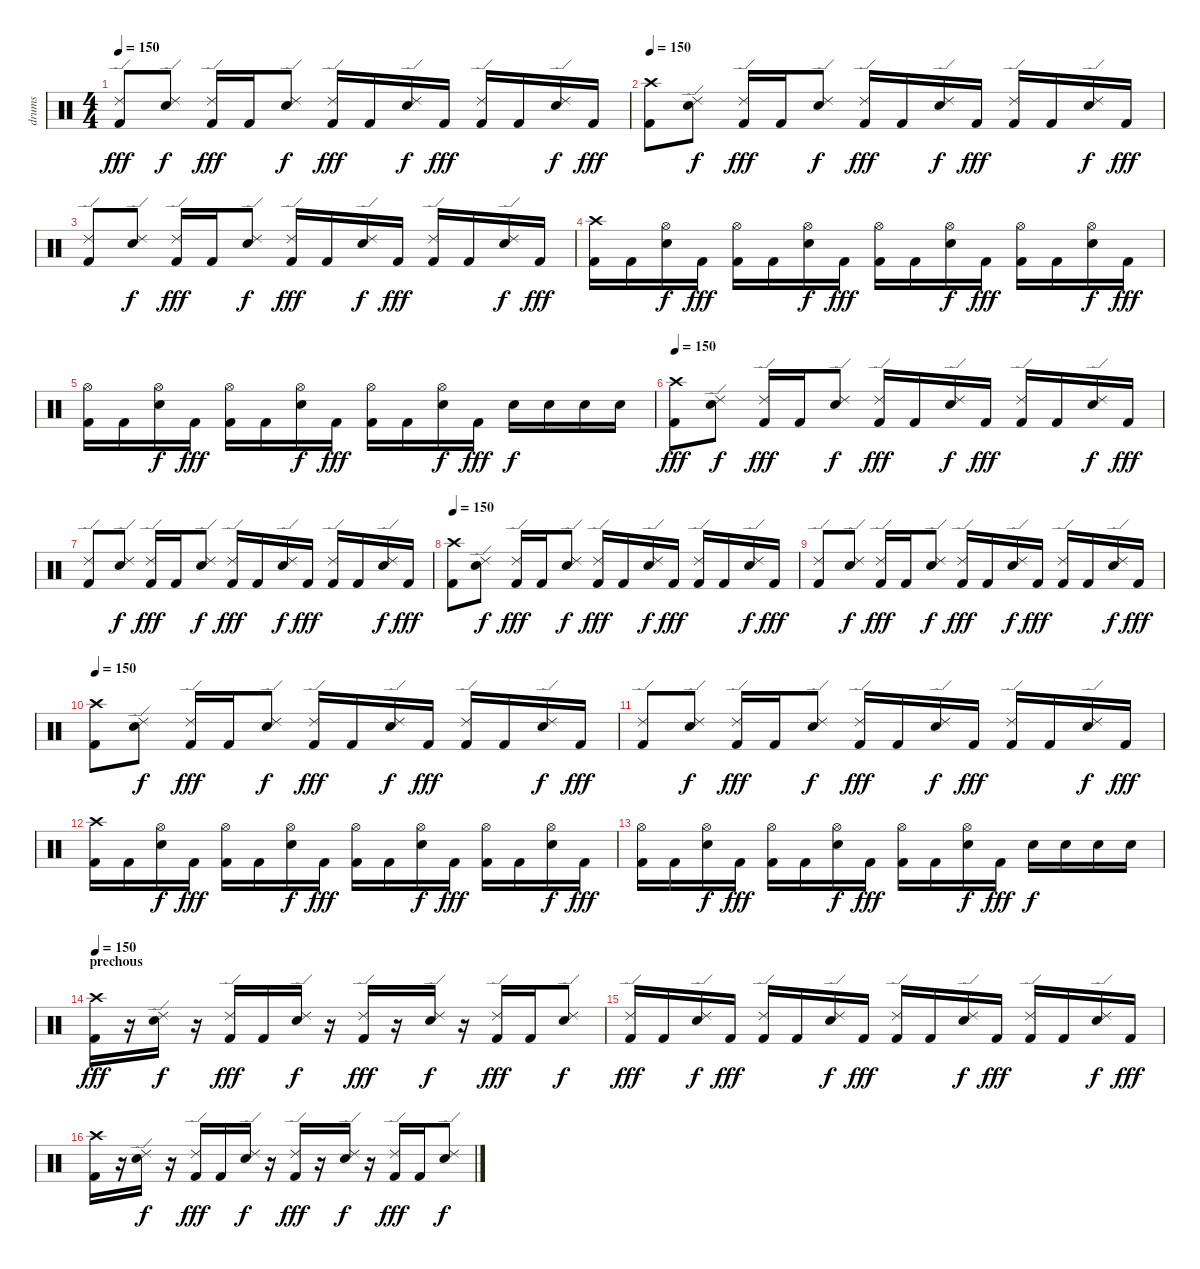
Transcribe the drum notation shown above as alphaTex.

\track ("drums" "drums") {instrument percussion}
\staff {score}
\articulation defaults
\ts (4 4)
\tempo 150
\clef neutral
\ks c
("Ride (edge) 2" "Kick (hit) 2").8{dy fff} ("Ride (edge) 2" "Snare (hit) 2").8{dy f} ("Ride (edge) 2" "Kick (hit) 2").16{dy fff} "Kick (hit) 2".16 ("Ride (edge) 2" "Snare (hit) 2").8{dy f} ("Ride (edge) 2" "Kick (hit) 2").16{dy fff} "Kick (hit) 2".16 ("Ride (edge) 2" "Snare (hit) 2").16{dy f} "Kick (hit) 2".16{dy fff} ("Ride (edge) 2" "Kick (hit) 2").16 "Kick (hit) 2".16 ("Ride (edge) 2" "Snare (hit) 2").16{dy f} "Kick (hit) 2".16{dy fff} |
\tempo 150
("Crash high (hit)" "Kick (hit) 2").8 ("Ride (edge) 2" "Snare (hit) 2").8{dy f} ("Ride (edge) 2" "Kick (hit) 2").16{dy fff} "Kick (hit) 2".16 ("Ride (edge) 2" "Snare (hit) 2").8{dy f} ("Ride (edge) 2" "Kick (hit) 2").16{dy fff} "Kick (hit) 2".16 ("Ride (edge) 2" "Snare (hit) 2").16{dy f} "Kick (hit) 2".16{dy fff} ("Ride (edge) 2" "Kick (hit) 2").16 "Kick (hit) 2".16 ("Ride (edge) 2" "Snare (hit) 2").16{dy f} "Kick (hit) 2".16{dy fff} |
("Ride (edge) 2" "Kick (hit) 2").8 ("Ride (edge) 2" "Snare (hit) 2").8{dy f} ("Ride (edge) 2" "Kick (hit) 2").16{dy fff} "Kick (hit) 2".16 ("Ride (edge) 2" "Snare (hit) 2").8{dy f} ("Ride (edge) 2" "Kick (hit) 2").16{dy fff} "Kick (hit) 2".16 ("Ride (edge) 2" "Snare (hit) 2").16{dy f} "Kick (hit) 2".16{dy fff} ("Ride (edge) 2" "Kick (hit) 2").16 "Kick (hit) 2".16 ("Ride (edge) 2" "Snare (hit) 2").16{dy f} "Kick (hit) 2".16{dy fff} |
("Crash high (hit)" "Kick (hit) 2").16 "Kick (hit) 2".16 ("Hi-Hat (open)" "Snare (hit) 2").16{dy f} "Kick (hit) 2".16{dy fff} ("Hi-Hat (open)" "Kick (hit) 2").16 "Kick (hit) 2".16 ("Hi-Hat (open)" "Snare (hit) 2").16{dy f} "Kick (hit) 2".16{dy fff} ("Hi-Hat (open)" "Kick (hit) 2").16 "Kick (hit) 2".16 ("Hi-Hat (open)" "Snare (hit) 2").16{dy f} "Kick (hit) 2".16{dy fff} ("Hi-Hat (open)" "Kick (hit) 2").16 "Kick (hit) 2".16 ("Hi-Hat (open)" "Snare (hit) 2").16{dy f} "Kick (hit) 2".16{dy fff} |
("Hi-Hat (open)" "Kick (hit) 2").16 "Kick (hit) 2".16 ("Hi-Hat (open)" "Snare (hit) 2").16{dy f} "Kick (hit) 2".16{dy fff} ("Hi-Hat (open)" "Kick (hit) 2").16 "Kick (hit) 2".16 ("Hi-Hat (open)" "Snare (hit) 2").16{dy f} "Kick (hit) 2".16{dy fff} ("Hi-Hat (open)" "Kick (hit) 2").16 "Kick (hit) 2".16 ("Hi-Hat (open)" "Snare (hit) 2").16{dy f} "Kick (hit) 2".16{dy fff} "Snare (hit) 2".16{dy f} "Snare (hit) 2".16 "Snare (hit) 2".16 "Snare (hit) 2".16 |
\tempo 150
("Crash high (hit)" "Kick (hit) 2").8{dy fff} ("Ride (edge) 2" "Snare (hit) 2").8{dy f} ("Ride (edge) 2" "Kick (hit) 2").16{dy fff} "Kick (hit) 2".16 ("Ride (edge) 2" "Snare (hit) 2").8{dy f} ("Ride (edge) 2" "Kick (hit) 2").16{dy fff} "Kick (hit) 2".16 ("Ride (edge) 2" "Snare (hit) 2").16{dy f} "Kick (hit) 2".16{dy fff} ("Ride (edge) 2" "Kick (hit) 2").16 "Kick (hit) 2".16 ("Ride (edge) 2" "Snare (hit) 2").16{dy f} "Kick (hit) 2".16{dy fff} |
("Ride (edge) 2" "Kick (hit) 2").8 ("Ride (edge) 2" "Snare (hit) 2").8{dy f} ("Ride (edge) 2" "Kick (hit) 2").16{dy fff} "Kick (hit) 2".16 ("Ride (edge) 2" "Snare (hit) 2").8{dy f} ("Ride (edge) 2" "Kick (hit) 2").16{dy fff} "Kick (hit) 2".16 ("Ride (edge) 2" "Snare (hit) 2").16{dy f} "Kick (hit) 2".16{dy fff} ("Ride (edge) 2" "Kick (hit) 2").16 "Kick (hit) 2".16 ("Ride (edge) 2" "Snare (hit) 2").16{dy f} "Kick (hit) 2".16{dy fff} |
\tempo 150
("Crash high (hit)" "Kick (hit) 2").8 ("Ride (edge) 2" "Snare (hit) 2").8{dy f} ("Ride (edge) 2" "Kick (hit) 2").16{dy fff} "Kick (hit) 2".16 ("Ride (edge) 2" "Snare (hit) 2").8{dy f} ("Ride (edge) 2" "Kick (hit) 2").16{dy fff} "Kick (hit) 2".16 ("Ride (edge) 2" "Snare (hit) 2").16{dy f} "Kick (hit) 2".16{dy fff} ("Ride (edge) 2" "Kick (hit) 2").16 "Kick (hit) 2".16 ("Ride (edge) 2" "Snare (hit) 2").16{dy f} "Kick (hit) 2".16{dy fff} |
("Ride (edge) 2" "Kick (hit) 2").8 ("Ride (edge) 2" "Snare (hit) 2").8{dy f} ("Ride (edge) 2" "Kick (hit) 2").16{dy fff} "Kick (hit) 2".16 ("Ride (edge) 2" "Snare (hit) 2").8{dy f} ("Ride (edge) 2" "Kick (hit) 2").16{dy fff} "Kick (hit) 2".16 ("Ride (edge) 2" "Snare (hit) 2").16{dy f} "Kick (hit) 2".16{dy fff} ("Ride (edge) 2" "Kick (hit) 2").16 "Kick (hit) 2".16 ("Ride (edge) 2" "Snare (hit) 2").16{dy f} "Kick (hit) 2".16{dy fff} |
\tempo 150
("Crash high (hit)" "Kick (hit) 2").8 ("Ride (edge) 2" "Snare (hit) 2").8{dy f} ("Ride (edge) 2" "Kick (hit) 2").16{dy fff} "Kick (hit) 2".16 ("Ride (edge) 2" "Snare (hit) 2").8{dy f} ("Ride (edge) 2" "Kick (hit) 2").16{dy fff} "Kick (hit) 2".16 ("Ride (edge) 2" "Snare (hit) 2").16{dy f} "Kick (hit) 2".16{dy fff} ("Ride (edge) 2" "Kick (hit) 2").16 "Kick (hit) 2".16 ("Ride (edge) 2" "Snare (hit) 2").16{dy f} "Kick (hit) 2".16{dy fff} |
("Ride (edge) 2" "Kick (hit) 2").8 ("Ride (edge) 2" "Snare (hit) 2").8{dy f} ("Ride (edge) 2" "Kick (hit) 2").16{dy fff} "Kick (hit) 2".16 ("Ride (edge) 2" "Snare (hit) 2").8{dy f} ("Ride (edge) 2" "Kick (hit) 2").16{dy fff} "Kick (hit) 2".16 ("Ride (edge) 2" "Snare (hit) 2").16{dy f} "Kick (hit) 2".16{dy fff} ("Ride (edge) 2" "Kick (hit) 2").16 "Kick (hit) 2".16 ("Ride (edge) 2" "Snare (hit) 2").16{dy f} "Kick (hit) 2".16{dy fff} |
("Crash high (hit)" "Kick (hit) 2").16 "Kick (hit) 2".16 ("Hi-Hat (open)" "Snare (hit) 2").16{dy f} "Kick (hit) 2".16{dy fff} ("Hi-Hat (open)" "Kick (hit) 2").16 "Kick (hit) 2".16 ("Hi-Hat (open)" "Snare (hit) 2").16{dy f} "Kick (hit) 2".16{dy fff} ("Hi-Hat (open)" "Kick (hit) 2").16 "Kick (hit) 2".16 ("Hi-Hat (open)" "Snare (hit) 2").16{dy f} "Kick (hit) 2".16{dy fff} ("Hi-Hat (open)" "Kick (hit) 2").16 "Kick (hit) 2".16 ("Hi-Hat (open)" "Snare (hit) 2").16{dy f} "Kick (hit) 2".16{dy fff} |
("Hi-Hat (open)" "Kick (hit) 2").16 "Kick (hit) 2".16 ("Hi-Hat (open)" "Snare (hit) 2").16{dy f} "Kick (hit) 2".16{dy fff} ("Hi-Hat (open)" "Kick (hit) 2").16 "Kick (hit) 2".16 ("Hi-Hat (open)" "Snare (hit) 2").16{dy f} "Kick (hit) 2".16{dy fff} ("Hi-Hat (open)" "Kick (hit) 2").16 "Kick (hit) 2".16 ("Hi-Hat (open)" "Snare (hit) 2").16{dy f} "Kick (hit) 2".16{dy fff} "Snare (hit) 2".16{dy f} "Snare (hit) 2".16 "Snare (hit) 2".16 "Snare (hit) 2".16 |
\section ("" "prechous")
\tempo 150
("Crash high (hit)" "Kick (hit) 2").16{dy fff} r.16 ("Ride (edge) 2" "Snare (hit) 2").16{dy f} r.16 ("Ride (edge) 2" "Kick (hit) 2").16{dy fff} "Kick (hit) 2".16 ("Ride (edge) 2" "Snare (hit) 2").16{dy f} r.16 ("Ride (edge) 2" "Kick (hit) 2").16{dy fff} r.16 ("Ride (edge) 2" "Snare (hit) 2").16{dy f} r.16 ("Ride (edge) 2" "Kick (hit) 2").16{dy fff} "Kick (hit) 2".16 ("Ride (edge) 2" "Snare (hit) 2").8{dy f} |
("Ride (edge) 2" "Kick (hit) 2").16{dy fff} "Kick (hit) 2".16 ("Ride (edge) 2" "Snare (hit) 2").16{dy f} "Kick (hit) 2".16{dy fff} ("Ride (edge) 2" "Kick (hit) 2").16 "Kick (hit) 2".16 ("Ride (edge) 2" "Snare (hit) 2").16{dy f} "Kick (hit) 2".16{dy fff} ("Ride (edge) 2" "Kick (hit) 2").16 "Kick (hit) 2".16 ("Ride (edge) 2" "Snare (hit) 2").16{dy f} "Kick (hit) 2".16{dy fff} ("Ride (edge) 2" "Kick (hit) 2").16 "Kick (hit) 2".16 ("Ride (edge) 2" "Snare (hit) 2").16{dy f} "Kick (hit) 2".16{dy fff} |
("Crash high (hit)" "Kick (hit) 2").16 r.16 ("Ride (edge) 2" "Snare (hit) 2").16{dy f} r.16 ("Ride (edge) 2" "Kick (hit) 2").16{dy fff} "Kick (hit) 2".16 ("Ride (edge) 2" "Snare (hit) 2").16{dy f} r.16 ("Ride (edge) 2" "Kick (hit) 2").16{dy fff} r.16 ("Ride (edge) 2" "Snare (hit) 2").16{dy f} r.16 ("Ride (edge) 2" "Kick (hit) 2").16{dy fff} "Kick (hit) 2".16 ("Ride (edge) 2" "Snare (hit) 2").8{dy f}
